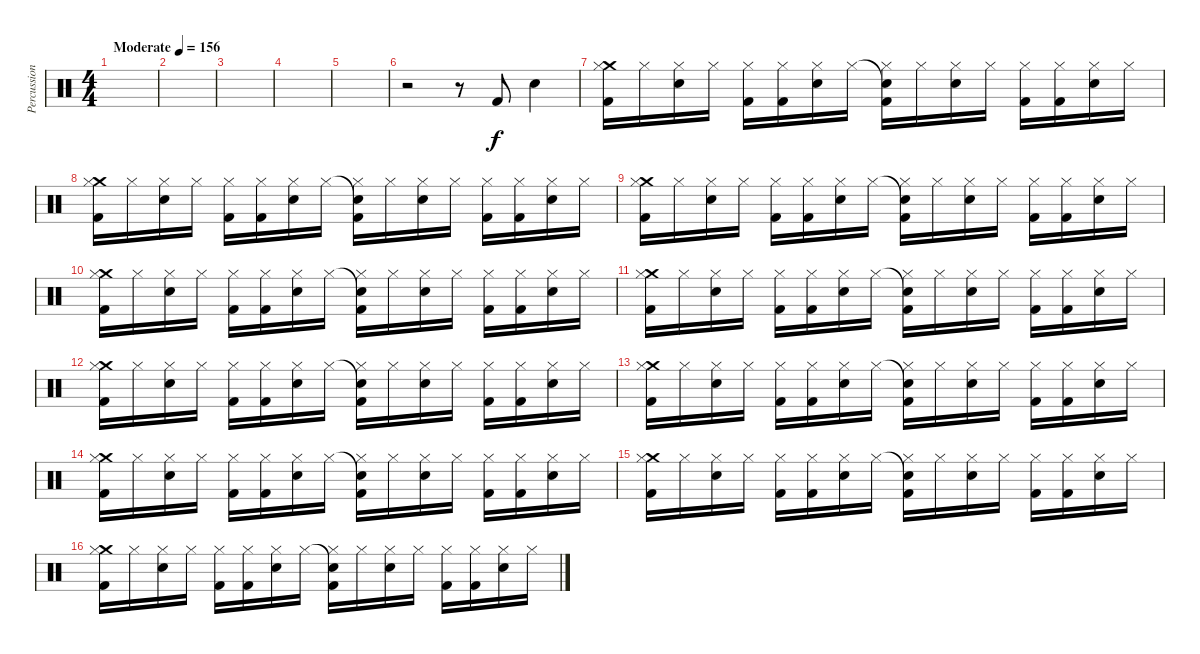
\track ("Percussion" "Percussion") {instrument percussion}
\staff {score}
\articulation defaults
\ts (4 4)
\tempo (156 "Moderate")
\clef neutral
\ks c
|
|
|
|
|
r.2 r.8 "Kick (hit) 2".8 "Electric Snare (hit)".4 |
("Crash medium (hit)" "Hi-Hat (closed)" "Kick (hit) 2").16 "Hi-Hat (closed)".16 ("Hi-Hat (closed)" "Electric Snare (hit)").16 "Hi-Hat (closed)".16 ("Hi-Hat (closed)" "Kick (hit) 2").16 ("Hi-Hat (closed)" "Kick (hit) 2").16 ("Hi-Hat (closed)" "Electric Snare (hit)").16 "Hi-Hat (closed)".16 ("Snare (hit)"{t} "Hi-Hat (closed)" "Kick (hit) 2").16 "Hi-Hat (closed)".16 ("Hi-Hat (closed)" "Electric Snare (hit)").16 "Hi-Hat (closed)".16 ("Hi-Hat (closed)" "Kick (hit) 2").16 ("Hi-Hat (closed)" "Kick (hit) 2").16 ("Hi-Hat (closed)" "Electric Snare (hit)").16 "Hi-Hat (closed)".16 |
("Crash medium (hit)" "Hi-Hat (closed)" "Kick (hit) 2").16 "Hi-Hat (closed)".16 ("Hi-Hat (closed)" "Electric Snare (hit)").16 "Hi-Hat (closed)".16 ("Hi-Hat (closed)" "Kick (hit) 2").16 ("Hi-Hat (closed)" "Kick (hit) 2").16 ("Hi-Hat (closed)" "Electric Snare (hit)").16 "Hi-Hat (closed)".16 ("Snare (hit)"{t} "Hi-Hat (closed)" "Kick (hit) 2").16 "Hi-Hat (closed)".16 ("Hi-Hat (closed)" "Electric Snare (hit)").16 "Hi-Hat (closed)".16 ("Hi-Hat (closed)" "Kick (hit) 2").16 ("Hi-Hat (closed)" "Kick (hit) 2").16 ("Hi-Hat (closed)" "Electric Snare (hit)").16 "Hi-Hat (closed)".16 |
("Crash medium (hit)" "Hi-Hat (closed)" "Kick (hit) 2").16 "Hi-Hat (closed)".16 ("Hi-Hat (closed)" "Electric Snare (hit)").16 "Hi-Hat (closed)".16 ("Hi-Hat (closed)" "Kick (hit) 2").16 ("Hi-Hat (closed)" "Kick (hit) 2").16 ("Hi-Hat (closed)" "Electric Snare (hit)").16 "Hi-Hat (closed)".16 ("Snare (hit)"{t} "Hi-Hat (closed)" "Kick (hit) 2").16 "Hi-Hat (closed)".16 ("Hi-Hat (closed)" "Electric Snare (hit)").16 "Hi-Hat (closed)".16 ("Hi-Hat (closed)" "Kick (hit) 2").16 ("Hi-Hat (closed)" "Kick (hit) 2").16 ("Hi-Hat (closed)" "Electric Snare (hit)").16 "Hi-Hat (closed)".16 |
("Crash medium (hit)" "Hi-Hat (closed)" "Kick (hit) 2").16 "Hi-Hat (closed)".16 ("Hi-Hat (closed)" "Electric Snare (hit)").16 "Hi-Hat (closed)".16 ("Hi-Hat (closed)" "Kick (hit) 2").16 ("Hi-Hat (closed)" "Kick (hit) 2").16 ("Hi-Hat (closed)" "Electric Snare (hit)").16 "Hi-Hat (closed)".16 ("Snare (hit)"{t} "Hi-Hat (closed)" "Kick (hit) 2").16 "Hi-Hat (closed)".16 ("Hi-Hat (closed)" "Electric Snare (hit)").16 "Hi-Hat (closed)".16 ("Hi-Hat (closed)" "Kick (hit) 2").16 ("Hi-Hat (closed)" "Kick (hit) 2").16 ("Hi-Hat (closed)" "Electric Snare (hit)").16 "Hi-Hat (closed)".16 |
("Crash medium (hit)" "Hi-Hat (closed)" "Kick (hit) 2").16 "Hi-Hat (closed)".16 ("Hi-Hat (closed)" "Electric Snare (hit)").16 "Hi-Hat (closed)".16 ("Hi-Hat (closed)" "Kick (hit) 2").16 ("Hi-Hat (closed)" "Kick (hit) 2").16 ("Hi-Hat (closed)" "Electric Snare (hit)").16 "Hi-Hat (closed)".16 ("Snare (hit)"{t} "Hi-Hat (closed)" "Kick (hit) 2").16 "Hi-Hat (closed)".16 ("Hi-Hat (closed)" "Electric Snare (hit)").16 "Hi-Hat (closed)".16 ("Hi-Hat (closed)" "Kick (hit) 2").16 ("Hi-Hat (closed)" "Kick (hit) 2").16 ("Hi-Hat (closed)" "Electric Snare (hit)").16 "Hi-Hat (closed)".16 |
("Crash medium (hit)" "Hi-Hat (closed)" "Kick (hit) 2").16 "Hi-Hat (closed)".16 ("Hi-Hat (closed)" "Electric Snare (hit)").16 "Hi-Hat (closed)".16 ("Hi-Hat (closed)" "Kick (hit) 2").16 ("Hi-Hat (closed)" "Kick (hit) 2").16 ("Hi-Hat (closed)" "Electric Snare (hit)").16 "Hi-Hat (closed)".16 ("Snare (hit)"{t} "Hi-Hat (closed)" "Kick (hit) 2").16 "Hi-Hat (closed)".16 ("Hi-Hat (closed)" "Electric Snare (hit)").16 "Hi-Hat (closed)".16 ("Hi-Hat (closed)" "Kick (hit) 2").16 ("Hi-Hat (closed)" "Kick (hit) 2").16 ("Hi-Hat (closed)" "Electric Snare (hit)").16 "Hi-Hat (closed)".16 |
("Crash medium (hit)" "Hi-Hat (closed)" "Kick (hit) 2").16 "Hi-Hat (closed)".16 ("Hi-Hat (closed)" "Electric Snare (hit)").16 "Hi-Hat (closed)".16 ("Hi-Hat (closed)" "Kick (hit) 2").16 ("Hi-Hat (closed)" "Kick (hit) 2").16 ("Hi-Hat (closed)" "Electric Snare (hit)").16 "Hi-Hat (closed)".16 ("Snare (hit)"{t} "Hi-Hat (closed)" "Kick (hit) 2").16 "Hi-Hat (closed)".16 ("Hi-Hat (closed)" "Electric Snare (hit)").16 "Hi-Hat (closed)".16 ("Hi-Hat (closed)" "Kick (hit) 2").16 ("Hi-Hat (closed)" "Kick (hit) 2").16 ("Hi-Hat (closed)" "Electric Snare (hit)").16 "Hi-Hat (closed)".16 |
("Crash medium (hit)" "Hi-Hat (closed)" "Kick (hit) 2").16 "Hi-Hat (closed)".16 ("Hi-Hat (closed)" "Electric Snare (hit)").16 "Hi-Hat (closed)".16 ("Hi-Hat (closed)" "Kick (hit) 2").16 ("Hi-Hat (closed)" "Kick (hit) 2").16 ("Hi-Hat (closed)" "Electric Snare (hit)").16 "Hi-Hat (closed)".16 ("Snare (hit)"{t} "Hi-Hat (closed)" "Kick (hit) 2").16 "Hi-Hat (closed)".16 ("Hi-Hat (closed)" "Electric Snare (hit)").16 "Hi-Hat (closed)".16 ("Hi-Hat (closed)" "Kick (hit) 2").16 ("Hi-Hat (closed)" "Kick (hit) 2").16 ("Hi-Hat (closed)" "Electric Snare (hit)").16 "Hi-Hat (closed)".16 |
("Crash medium (hit)" "Hi-Hat (closed)" "Kick (hit) 2").16 "Hi-Hat (closed)".16 ("Hi-Hat (closed)" "Electric Snare (hit)").16 "Hi-Hat (closed)".16 ("Hi-Hat (closed)" "Kick (hit) 2").16 ("Hi-Hat (closed)" "Kick (hit) 2").16 ("Hi-Hat (closed)" "Electric Snare (hit)").16 "Hi-Hat (closed)".16 ("Snare (hit)"{t} "Hi-Hat (closed)" "Kick (hit) 2").16 "Hi-Hat (closed)".16 ("Hi-Hat (closed)" "Electric Snare (hit)").16 "Hi-Hat (closed)".16 ("Hi-Hat (closed)" "Kick (hit) 2").16 ("Hi-Hat (closed)" "Kick (hit) 2").16 ("Hi-Hat (closed)" "Electric Snare (hit)").16 "Hi-Hat (closed)".16 |
("Crash medium (hit)" "Hi-Hat (closed)" "Kick (hit) 2").16 "Hi-Hat (closed)".16 ("Hi-Hat (closed)" "Electric Snare (hit)").16 "Hi-Hat (closed)".16 ("Hi-Hat (closed)" "Kick (hit) 2").16 ("Hi-Hat (closed)" "Kick (hit) 2").16 ("Hi-Hat (closed)" "Electric Snare (hit)").16 "Hi-Hat (closed)".16 ("Snare (hit)"{t} "Hi-Hat (closed)" "Kick (hit) 2").16 "Hi-Hat (closed)".16 ("Hi-Hat (closed)" "Electric Snare (hit)").16 "Hi-Hat (closed)".16 ("Hi-Hat (closed)" "Kick (hit) 2").16 ("Hi-Hat (closed)" "Kick (hit) 2").16 ("Hi-Hat (closed)" "Electric Snare (hit)").16 "Hi-Hat (closed)".16
